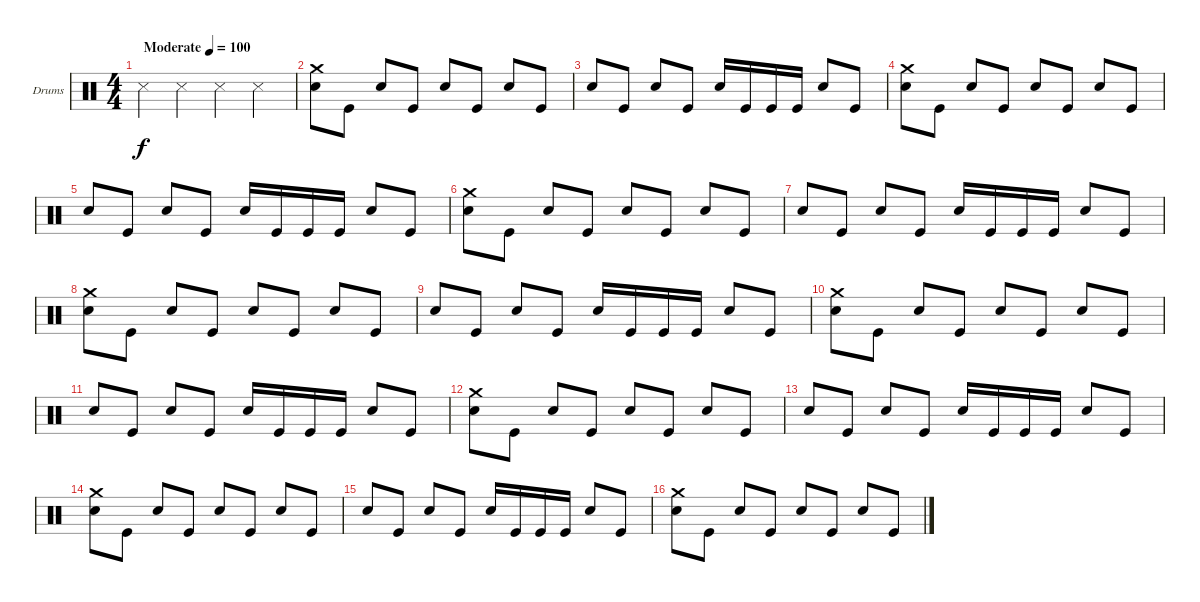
\bracketExtendMode groupsimilarinstruments
\firstSystemTrackNameOrientation horizontal
\otherSystemsTrackNameOrientation horizontal
\track ("Drumkit" "Drums") {instrument percussion}
\staff {score}
\articulation defaults
\ts (4 4)
\beaming (8 2 2 2 2)
\tempo (100 "Moderate")
\clef neutral
\ks c "Snare (side stick) 3".4{dy f} "Snare (side stick) 3".4 "Snare (side stick) 3".4 "Snare (side stick) 3".4
|
("Crash medium (hit)" "Snare (hit) 2").8 "Kick (hit)".8 "Snare (hit) 2".8 "Kick (hit)".8 "Snare (hit) 2".8 "Kick (hit)".8 "Snare (hit) 2".8 "Kick (hit)".8 |
"Snare (hit) 2".8 "Kick (hit)".8 "Snare (hit) 2".8 "Kick (hit)".8 "Snare (hit) 2".16 "Kick (hit)".16 "Kick (hit)".16 "Kick (hit)".16 "Snare (hit) 2".8 "Kick (hit)".8 |
("Crash medium (hit)" "Snare (hit) 2").8 "Kick (hit)".8 "Snare (hit) 2".8 "Kick (hit)".8 "Snare (hit) 2".8 "Kick (hit)".8 "Snare (hit) 2".8 "Kick (hit)".8 |
"Snare (hit) 2".8 "Kick (hit)".8 "Snare (hit) 2".8 "Kick (hit)".8 "Snare (hit) 2".16 "Kick (hit)".16 "Kick (hit)".16 "Kick (hit)".16 "Snare (hit) 2".8 "Kick (hit)".8 |
("Crash medium (hit)" "Snare (hit) 2").8 "Kick (hit)".8 "Snare (hit) 2".8 "Kick (hit)".8 "Snare (hit) 2".8 "Kick (hit)".8 "Snare (hit) 2".8 "Kick (hit)".8 |
"Snare (hit) 2".8 "Kick (hit)".8 "Snare (hit) 2".8 "Kick (hit)".8 "Snare (hit) 2".16 "Kick (hit)".16 "Kick (hit)".16 "Kick (hit)".16 "Snare (hit) 2".8 "Kick (hit)".8 |
("Crash medium (hit)" "Snare (hit) 2").8 "Kick (hit)".8 "Snare (hit) 2".8 "Kick (hit)".8 "Snare (hit) 2".8 "Kick (hit)".8 "Snare (hit) 2".8 "Kick (hit)".8 |
"Snare (hit) 2".8 "Kick (hit)".8 "Snare (hit) 2".8 "Kick (hit)".8 "Snare (hit) 2".16 "Kick (hit)".16 "Kick (hit)".16 "Kick (hit)".16 "Snare (hit) 2".8 "Kick (hit)".8 |
("Crash medium (hit)" "Snare (hit) 2").8 "Kick (hit)".8 "Snare (hit) 2".8 "Kick (hit)".8 "Snare (hit) 2".8 "Kick (hit)".8 "Snare (hit) 2".8 "Kick (hit)".8 |
"Snare (hit) 2".8 "Kick (hit)".8 "Snare (hit) 2".8 "Kick (hit)".8 "Snare (hit) 2".16 "Kick (hit)".16 "Kick (hit)".16 "Kick (hit)".16 "Snare (hit) 2".8 "Kick (hit)".8 |
("Crash medium (hit)" "Snare (hit) 2").8 "Kick (hit)".8 "Snare (hit) 2".8 "Kick (hit)".8 "Snare (hit) 2".8 "Kick (hit)".8 "Snare (hit) 2".8 "Kick (hit)".8 |
"Snare (hit) 2".8 "Kick (hit)".8 "Snare (hit) 2".8 "Kick (hit)".8 "Snare (hit) 2".16 "Kick (hit)".16 "Kick (hit)".16 "Kick (hit)".16 "Snare (hit) 2".8 "Kick (hit)".8 |
("Crash medium (hit)" "Snare (hit) 2").8 "Kick (hit)".8 "Snare (hit) 2".8 "Kick (hit)".8 "Snare (hit) 2".8 "Kick (hit)".8 "Snare (hit) 2".8 "Kick (hit)".8 |
"Snare (hit) 2".8 "Kick (hit)".8 "Snare (hit) 2".8 "Kick (hit)".8 "Snare (hit) 2".16 "Kick (hit)".16 "Kick (hit)".16 "Kick (hit)".16 "Snare (hit) 2".8 "Kick (hit)".8 |
("Crash medium (hit)" "Snare (hit) 2").8 "Kick (hit)".8 "Snare (hit) 2".8 "Kick (hit)".8 "Snare (hit) 2".8 "Kick (hit)".8 "Snare (hit) 2".8 "Kick (hit)".8
